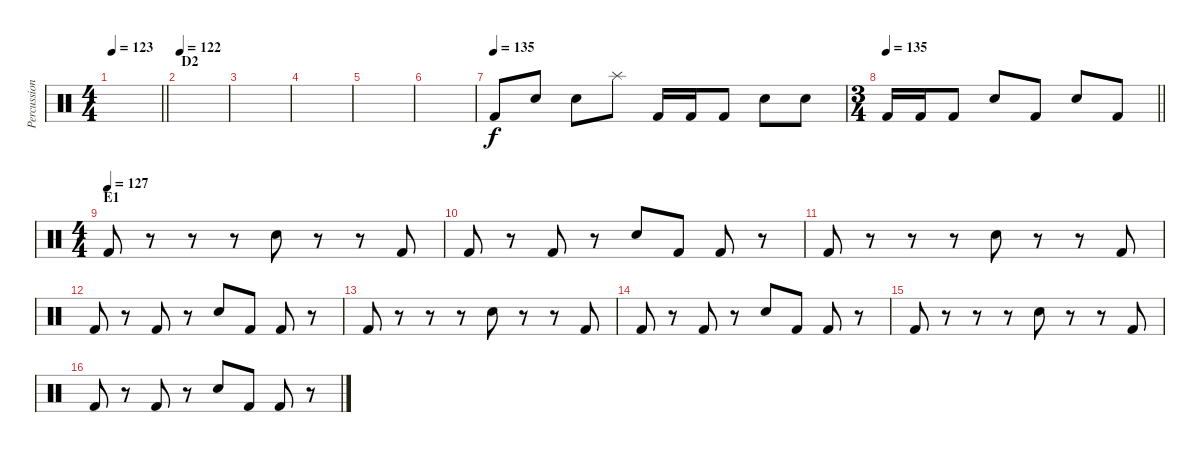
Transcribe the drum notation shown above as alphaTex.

\track ("Percussion" "Percussion") {instrument percussion}
\staff {score}
\articulation defaults
\ts (4 4)
\tempo 123
\clef neutral
\barLineRight lightlight
\ks c
|
\section ("" "D2")
\tempo 122
|
|
|
|
|
\tempo (135)
"Kick (hit) 2".8 "Electric Snare (hit)".8 "Electric Snare (hit)".8 "Splash (hit)".8 "Kick (hit) 2".16 "Kick (hit) 2".16 "Kick (hit) 2".8 "Electric Snare (hit)".8 "Electric Snare (hit)".8 |
\ts (3 4)
\tempo 135
\barLineRight lightlight "Kick (hit) 2".16 "Kick (hit) 2".16 "Kick (hit) 2".8 "Electric Snare (hit)".8 "Kick (hit) 2".8 "Electric Snare (hit)".8 "Kick (hit) 2".8
|
\ts (4 4)
\section ("" "E1")
\tempo (127)
"Kick (hit) 2".8 r.8 r.8 r.8 "Electric Snare (hit)".8 r.8 r.8 "Kick (hit) 2".8 |
"Kick (hit) 2".8 r.8 "Kick (hit) 2".8 r.8 "Electric Snare (hit)".8 "Kick (hit) 2".8 "Kick (hit) 2".8 r.8 |
"Kick (hit) 2".8 r.8 r.8 r.8 "Electric Snare (hit)".8 r.8 r.8 "Kick (hit) 2".8 |
"Kick (hit) 2".8 r.8 "Kick (hit) 2".8 r.8 "Electric Snare (hit)".8 "Kick (hit) 2".8 "Kick (hit) 2".8 r.8 |
"Kick (hit) 2".8 r.8 r.8 r.8 "Electric Snare (hit)".8 r.8 r.8 "Kick (hit) 2".8 |
"Kick (hit) 2".8 r.8 "Kick (hit) 2".8 r.8 "Electric Snare (hit)".8 "Kick (hit) 2".8 "Kick (hit) 2".8 r.8 |
"Kick (hit) 2".8 r.8 r.8 r.8 "Electric Snare (hit)".8 r.8 r.8 "Kick (hit) 2".8 |
"Kick (hit) 2".8 r.8 "Kick (hit) 2".8 r.8 "Electric Snare (hit)".8 "Kick (hit) 2".8 "Kick (hit) 2".8 r.8
